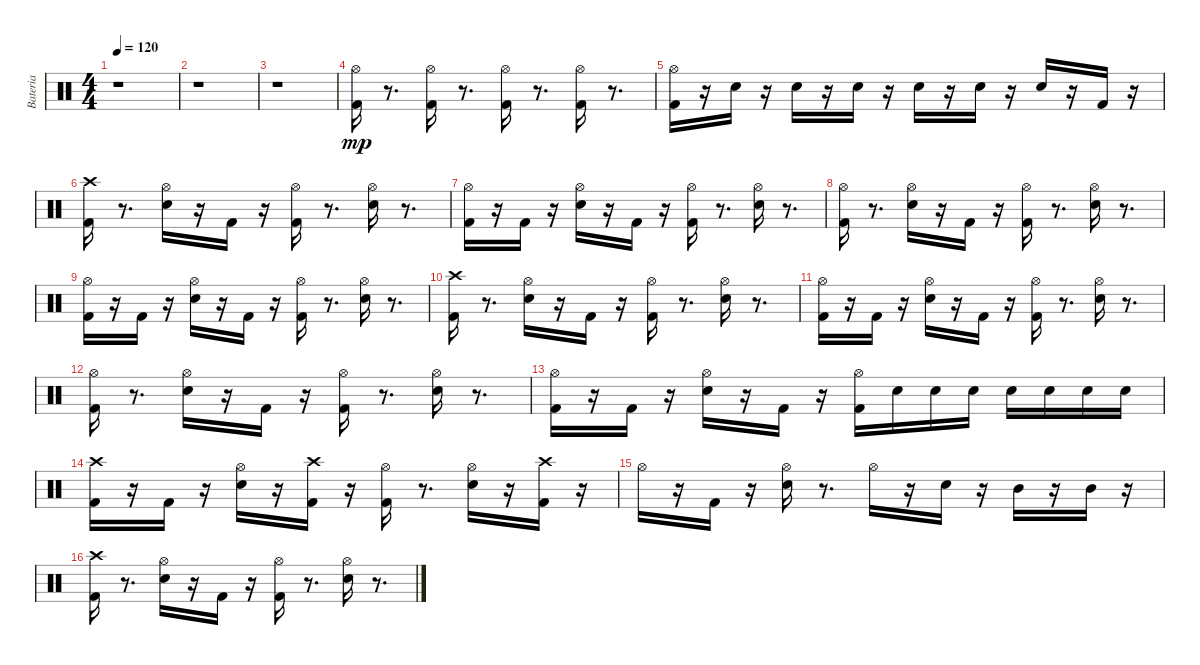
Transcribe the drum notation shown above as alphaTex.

\track ("Bateria" "Bateria") {instrument percussion}
\staff {score}
\articulation defaults
\ts (4 4)
\tempo 120
\clef neutral
\ks c
r.1{dy mp} |
r.1 |
r.1 |
("Hi-Hat (open)" "Kick (hit) 2").16 r.8{d} ("Hi-Hat (open)" "Kick (hit) 2").16 r.8{d} ("Hi-Hat (open)" "Kick (hit) 2").16 r.8{d} ("Hi-Hat (open)" "Kick (hit) 2").16 r.8{d} |
("Kick (hit) 2" "Hi-Hat (open)").16 r.16 "Snare (hit) 2".16 r.16 "Snare (hit) 2".16 r.16 "Snare (hit) 2".16 r.16 "Snare (hit) 2".16 r.16 "Snare (hit) 2".16 r.16 "Snare (hit) 2".16 r.16 "Kick (hit) 2".16 r.16 |
("Kick (hit) 2" "Crash high (hit)").16 r.8{d} ("Snare (hit) 2" "Hi-Hat (open)").16 r.16 "Kick (hit) 2".16 r.16 ("Hi-Hat (open)" "Kick (hit) 2").16 r.8{d} ("Hi-Hat (open)" "Snare (hit) 2").16 r.8{d} |
("Hi-Hat (open)" "Kick (hit) 2").16 r.16 "Kick (hit) 2".16 r.16 ("Hi-Hat (open)" "Snare (hit) 2").16 r.16 "Kick (hit) 2".16 r.16 ("Hi-Hat (open)" "Kick (hit) 2").16 r.8{d} ("Hi-Hat (open)" "Snare (hit) 2").16 r.8{d} |
("Hi-Hat (open)" "Kick (hit) 2").16 r.8{d} ("Snare (hit) 2" "Hi-Hat (open)").16 r.16 "Kick (hit) 2".16 r.16 ("Hi-Hat (open)" "Kick (hit) 2").16 r.8{d} ("Hi-Hat (open)" "Snare (hit) 2").16 r.8{d} |
("Hi-Hat (open)" "Kick (hit) 2").16 r.16 "Kick (hit) 2".16 r.16 ("Hi-Hat (open)" "Snare (hit) 2").16 r.16 "Kick (hit) 2".16 r.16 ("Hi-Hat (open)" "Kick (hit) 2").16 r.8{d} ("Hi-Hat (open)" "Snare (hit) 2").16 r.8{d} |
("Kick (hit) 2" "Crash high (hit)").16 r.8{d} ("Snare (hit) 2" "Hi-Hat (open)").16 r.16 "Kick (hit) 2".16 r.16 ("Hi-Hat (open)" "Kick (hit) 2").16 r.8{d} ("Hi-Hat (open)" "Snare (hit) 2").16 r.8{d} |
("Hi-Hat (open)" "Kick (hit) 2").16 r.16 "Kick (hit) 2".16 r.16 ("Hi-Hat (open)" "Snare (hit) 2").16 r.16 "Kick (hit) 2".16 r.16 ("Hi-Hat (open)" "Kick (hit) 2").16 r.8{d} ("Hi-Hat (open)" "Snare (hit) 2").16 r.8{d} |
("Hi-Hat (open)" "Kick (hit) 2").16 r.8{d} ("Snare (hit) 2" "Hi-Hat (open)").16 r.16 "Kick (hit) 2".16 r.16 ("Hi-Hat (open)" "Kick (hit) 2").16 r.8{d} ("Hi-Hat (open)" "Snare (hit) 2").16 r.8{d} |
("Hi-Hat (open)" "Kick (hit) 2").16 r.16 "Kick (hit) 2".16 r.16 ("Hi-Hat (open)" "Snare (hit) 2").16 r.16 "Kick (hit) 2".16 r.16 ("Hi-Hat (open)" "Kick (hit) 2").16 "Snare (hit) 2".16 "Snare (hit) 2".16 "Snare (hit) 2".16 "Snare (hit) 2".16 "Snare (hit) 2".16 "Snare (hit) 2".16 "Snare (hit) 2".16 |
("Crash high (hit)" "Kick (hit) 2").16 r.16 "Kick (hit) 2".16 r.16 ("Hi-Hat (open)" "Snare (hit) 2").16 r.16 ("Crash high (hit)" "Kick (hit) 2").16 r.16 ("Hi-Hat (open)" "Kick (hit) 2").16 r.8{d} ("Hi-Hat (open)" "Snare (hit) 2").16 r.16 ("Kick (hit) 2" "Crash high (hit)").16 r.16 |
"Hi-Hat (open)".16 r.16 "Kick (hit) 2".16 r.16 ("Hi-Hat (open)" "Snare (hit) 2").16 r.8{d} "Hi-Hat (open)".16 r.16 "Snare (hit) 2".16 r.16 "Mid Tom (hit)".16 r.16 "Mid Tom (hit)".16 r.16 |
("Kick (hit) 2" "Crash high (hit)").16 r.8{d} ("Snare (hit) 2" "Hi-Hat (open)").16 r.16 "Kick (hit) 2".16 r.16 ("Hi-Hat (open)" "Kick (hit) 2").16 r.8{d} ("Hi-Hat (open)" "Snare (hit) 2").16 r.8{d}
